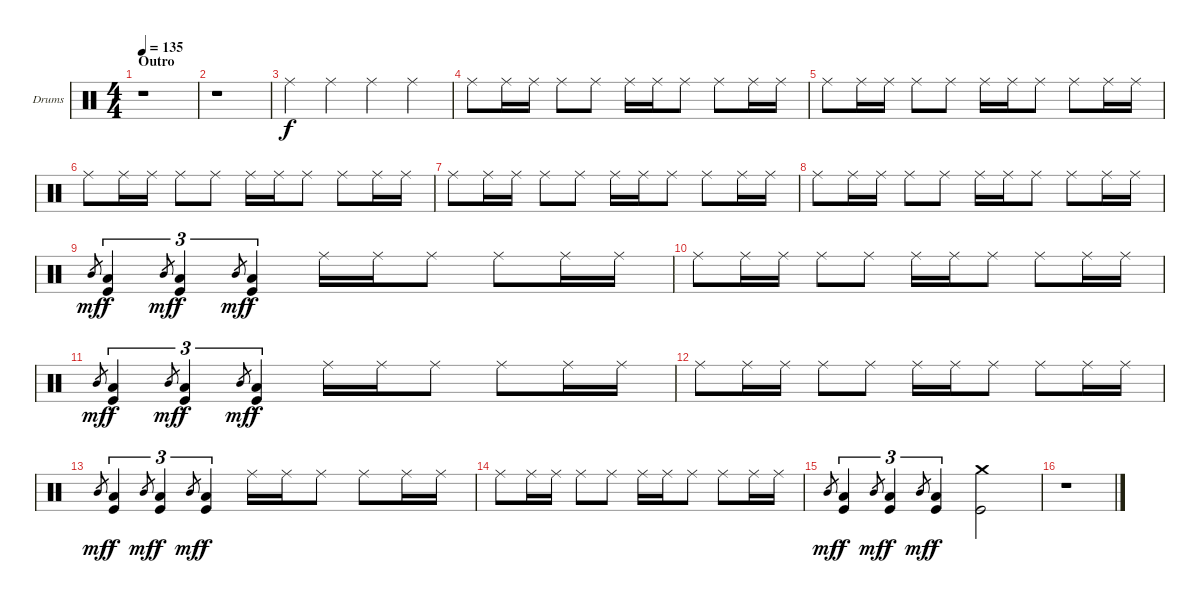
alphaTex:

\bracketExtendMode groupsimilarinstruments
\firstSystemTrackNameOrientation horizontal
\otherSystemsTrackNameOrientation horizontal
\track ("Drumkit" "Drums") {instrument percussion}
\staff {score}
\articulation defaults
\ts (4 4)
\section ("" "Outro")
\tempo 135
\clef neutral
\ks c
r.1{dy ppp} |
r.1 |
"Ride (middle)".4{dy f} "Ride (middle)".4 "Ride (middle)".4 "Ride (middle)".4 |
"Ride (middle)".8 "Ride (middle)".16 "Ride (middle)".16 "Ride (middle)".8 "Ride (middle)".8 "Ride (middle)".16 "Ride (middle)".16 "Ride (middle)".8 "Ride (middle)".8 "Ride (middle)".16 "Ride (middle)".16 |
"Ride (middle)".8 "Ride (middle)".16 "Ride (middle)".16 "Ride (middle)".8 "Ride (middle)".8 "Ride (middle)".16 "Ride (middle)".16 "Ride (middle)".8 "Ride (middle)".8 "Ride (middle)".16 "Ride (middle)".16 |
"Ride (middle)".8 "Ride (middle)".16 "Ride (middle)".16 "Ride (middle)".8 "Ride (middle)".8 "Ride (middle)".16 "Ride (middle)".16 "Ride (middle)".8 "Ride (middle)".8 "Ride (middle)".16 "Ride (middle)".16 |
"Ride (middle)".8 "Ride (middle)".16 "Ride (middle)".16 "Ride (middle)".8 "Ride (middle)".8 "Ride (middle)".16 "Ride (middle)".16 "Ride (middle)".8 "Ride (middle)".8 "Ride (middle)".16 "Ride (middle)".16 |
"Ride (middle)".8 "Ride (middle)".16 "Ride (middle)".16 "Ride (middle)".8 "Ride (middle)".8 "Ride (middle)".16 "Ride (middle)".16 "Ride (middle)".8 "Ride (middle)".8 "Ride (middle)".16 "Ride (middle)".16 |
"Mid Tom (hit)".8{gr dy mf} ("Kick (hit)" "Low Tom (hit)").4{tu (3 2) dy f} "Mid Tom (hit)".8{gr dy mf} ("Kick (hit)" "Low Tom (hit)").4{tu (3 2) dy f} "Mid Tom (hit)".8{gr dy mf} ("Kick (hit)" "Low Tom (hit)").4{tu (3 2) dy f} "Ride (middle)".16 "Ride (middle)".16 "Ride (middle)".8 "Ride (middle)".8 "Ride (middle)".16 "Ride (middle)".16 |
"Ride (middle)".8 "Ride (middle)".16 "Ride (middle)".16 "Ride (middle)".8 "Ride (middle)".8 "Ride (middle)".16 "Ride (middle)".16 "Ride (middle)".8 "Ride (middle)".8 "Ride (middle)".16 "Ride (middle)".16 |
"Mid Tom (hit)".8{gr dy mf} ("Kick (hit)" "Low Tom (hit)").4{tu (3 2) dy f} "Mid Tom (hit)".8{gr dy mf} ("Kick (hit)" "Low Tom (hit)").4{tu (3 2) dy f} "Mid Tom (hit)".8{gr dy mf} ("Kick (hit)" "Low Tom (hit)").4{tu (3 2) dy f} "Ride (middle)".16 "Ride (middle)".16 "Ride (middle)".8 "Ride (middle)".8 "Ride (middle)".16 "Ride (middle)".16 |
"Ride (middle)".8 "Ride (middle)".16 "Ride (middle)".16 "Ride (middle)".8 "Ride (middle)".8 "Ride (middle)".16 "Ride (middle)".16 "Ride (middle)".8 "Ride (middle)".8 "Ride (middle)".16 "Ride (middle)".16 |
"Mid Tom (hit)".8{gr dy mf} ("Kick (hit)" "Low Tom (hit)").4{tu (3 2) dy f} "Mid Tom (hit)".8{gr dy mf} ("Kick (hit)" "Low Tom (hit)").4{tu (3 2) dy f} "Mid Tom (hit)".8{gr dy mf} ("Kick (hit)" "Low Tom (hit)").4{tu (3 2) dy f} "Ride (middle)".16 "Ride (middle)".16 "Ride (middle)".8 "Ride (middle)".8 "Ride (middle)".16 "Ride (middle)".16 |
"Ride (middle)".8 "Ride (middle)".16 "Ride (middle)".16 "Ride (middle)".8 "Ride (middle)".8 "Ride (middle)".16 "Ride (middle)".16 "Ride (middle)".8 "Ride (middle)".8 "Ride (middle)".16 "Ride (middle)".16 |
"Mid Tom (hit)".8{gr dy mf} ("Kick (hit)" "Low Tom (hit)").4{tu (3 2) dy f} "Mid Tom (hit)".8{gr dy mf} ("Kick (hit)" "Low Tom (hit)").4{tu (3 2) dy f} "Mid Tom (hit)".8{gr dy mf} ("Kick (hit)" "Low Tom (hit)").4{tu (3 2) dy f} ("Kick (hit)" "Crash medium (hit)").2 |
r.1
